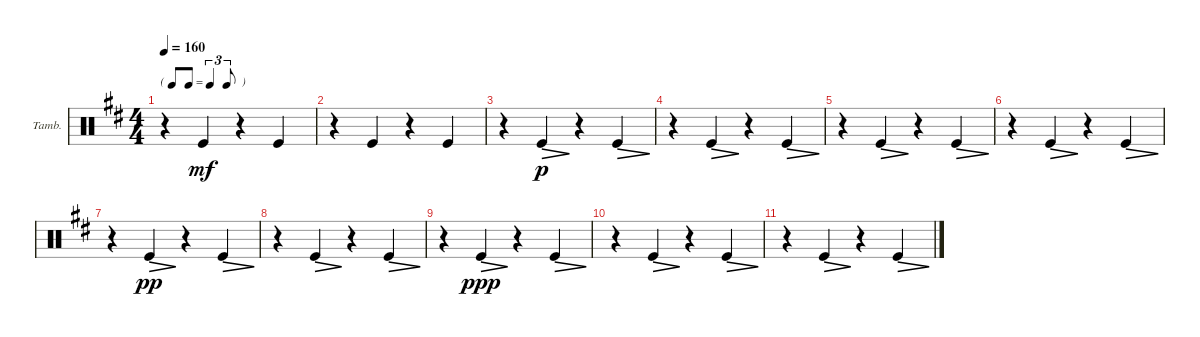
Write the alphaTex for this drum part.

\defaultSystemsLayout 4
\bracketExtendMode groupsimilarinstruments
\firstSystemTrackNameOrientation horizontal
\otherSystemsTrackNameOrientation horizontal
\track ("Tambourine" "Tamb.") {instrument percussion}
\staff {score}
\articulation defaults
\ts (4 4)
\tf triplet8th
\tempo 160
\clef neutral
\ks bminor
r.4{dy mf} "Kick (hit)".4 r.4 "Kick (hit)".4 |
r.4 "Kick (hit)".4 r.4 "Kick (hit)".4 |
r.4 "Kick (hit)".4{dec dy p} r.4 "Kick (hit)".4{dec} |
r.4 "Kick (hit)".4{dec} r.4 "Kick (hit)".4{dec} |
r.4 "Kick (hit)".4{dec} r.4 "Kick (hit)".4{dec} |
r.4 "Kick (hit)".4{dec} r.4 "Kick (hit)".4{dec} |
r.4 "Kick (hit)".4{dec dy pp} r.4 "Kick (hit)".4{dec} |
r.4 "Kick (hit)".4{dec} r.4 "Kick (hit)".4{dec} |
r.4 "Kick (hit)".4{dec dy ppp} r.4 "Kick (hit)".4{dec} |
r.4 "Kick (hit)".4{dec} r.4 "Kick (hit)".4{dec} |
r.4 "Kick (hit)".4{dec} r.4 "Kick (hit)".4{dec}
